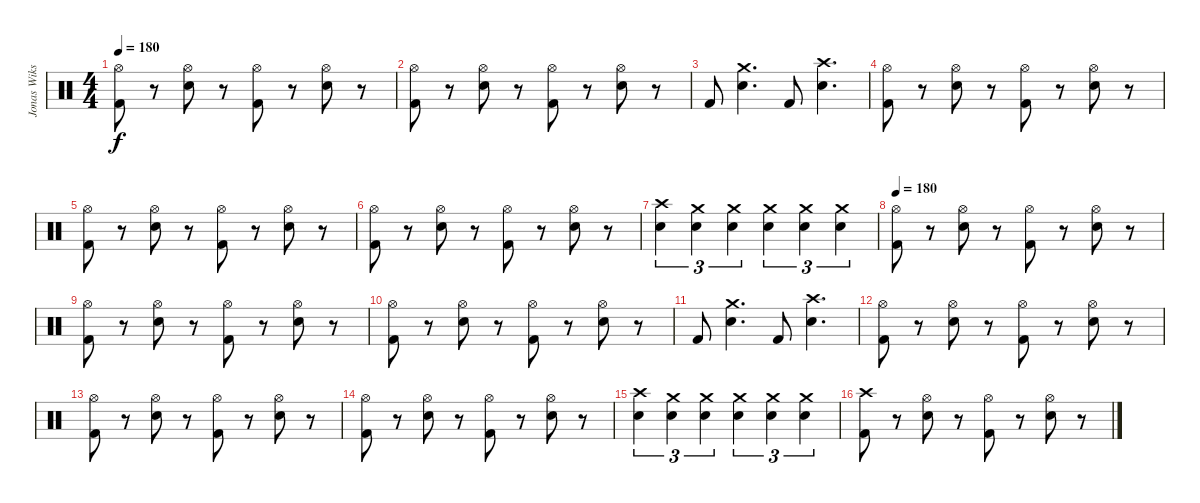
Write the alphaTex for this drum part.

\track ("Jonas Wikstrand" "Jonas Wiks") {instrument percussion}
\staff {score}
\articulation defaults
\ts (4 4)
\tempo 180
\clef neutral
\ks c
("Hi-Hat (open)" "Kick (hit) 2").8{dy f} r.8 ("Hi-Hat (open)" "Snare (hit) 2").8 r.8 ("Hi-Hat (open)" "Kick (hit) 2").8 r.8 ("Hi-Hat (open)" "Snare (hit) 2").8 r.8 |
("Hi-Hat (open)" "Kick (hit) 2").8 r.8 ("Hi-Hat (open)" "Snare (hit) 2").8 r.8 ("Hi-Hat (open)" "Kick (hit) 2").8 r.8 ("Hi-Hat (open)" "Snare (hit) 2").8 r.8 |
"Kick (hit) 2".8 ("Crash medium (hit)" "Snare (hit) 2").4{d} "Kick (hit) 2".8 ("Crash high (hit)" "Snare (hit) 2").4{d} |
("Hi-Hat (open)" "Kick (hit) 2").8 r.8 ("Hi-Hat (open)" "Snare (hit) 2").8 r.8 ("Hi-Hat (open)" "Kick (hit) 2").8 r.8 ("Hi-Hat (open)" "Snare (hit) 2").8 r.8 |
("Hi-Hat (open)" "Kick (hit) 2").8 r.8 ("Hi-Hat (open)" "Snare (hit) 2").8 r.8 ("Hi-Hat (open)" "Kick (hit) 2").8 r.8 ("Hi-Hat (open)" "Snare (hit) 2").8 r.8 |
("Hi-Hat (open)" "Kick (hit) 2").8 r.8 ("Hi-Hat (open)" "Snare (hit) 2").8 r.8 ("Hi-Hat (open)" "Kick (hit) 2").8 r.8 ("Hi-Hat (open)" "Snare (hit) 2").8 r.8 |
("Crash high (hit)" "Snare (hit) 2").4{tu (3 2)} ("Crash medium (hit)" "Snare (hit) 2").4{tu (3 2)} ("Crash medium (hit)" "Snare (hit) 2").4{tu (3 2)} ("Crash medium (hit)" "Snare (hit) 2").4{tu (3 2)} ("Crash medium (hit)" "Snare (hit) 2").4{tu (3 2)} ("Crash medium (hit)" "Snare (hit) 2").4{tu (3 2)} |
\tempo 180
("Hi-Hat (open)" "Kick (hit) 2").8 r.8 ("Hi-Hat (open)" "Snare (hit) 2").8 r.8 ("Hi-Hat (open)" "Kick (hit) 2").8 r.8 ("Hi-Hat (open)" "Snare (hit) 2").8 r.8 |
("Hi-Hat (open)" "Kick (hit) 2").8 r.8 ("Hi-Hat (open)" "Snare (hit) 2").8 r.8 ("Hi-Hat (open)" "Kick (hit) 2").8 r.8 ("Hi-Hat (open)" "Snare (hit) 2").8 r.8 |
("Hi-Hat (open)" "Kick (hit) 2").8 r.8 ("Hi-Hat (open)" "Snare (hit) 2").8 r.8 ("Hi-Hat (open)" "Kick (hit) 2").8 r.8 ("Hi-Hat (open)" "Snare (hit) 2").8 r.8 |
"Kick (hit) 2".8 ("Crash medium (hit)" "Snare (hit) 2").4{d} "Kick (hit) 2".8 ("Crash high (hit)" "Snare (hit) 2").4{d} |
("Hi-Hat (open)" "Kick (hit) 2").8 r.8 ("Hi-Hat (open)" "Snare (hit) 2").8 r.8 ("Hi-Hat (open)" "Kick (hit) 2").8 r.8 ("Hi-Hat (open)" "Snare (hit) 2").8 r.8 |
("Hi-Hat (open)" "Kick (hit) 2").8 r.8 ("Hi-Hat (open)" "Snare (hit) 2").8 r.8 ("Hi-Hat (open)" "Kick (hit) 2").8 r.8 ("Hi-Hat (open)" "Snare (hit) 2").8 r.8 |
("Hi-Hat (open)" "Kick (hit) 2").8 r.8 ("Hi-Hat (open)" "Snare (hit) 2").8 r.8 ("Hi-Hat (open)" "Kick (hit) 2").8 r.8 ("Hi-Hat (open)" "Snare (hit) 2").8 r.8 |
("Crash high (hit)" "Snare (hit) 2").4{tu (3 2)} ("Crash medium (hit)" "Snare (hit) 2").4{tu (3 2)} ("Crash medium (hit)" "Snare (hit) 2").4{tu (3 2)} ("Crash medium (hit)" "Snare (hit) 2").4{tu (3 2)} ("Crash medium (hit)" "Snare (hit) 2").4{tu (3 2)} ("Crash medium (hit)" "Snare (hit) 2").4{tu (3 2)} |
("Crash high (hit)" "Kick (hit) 2").8 r.8 ("Hi-Hat (open)" "Snare (hit) 2").8 r.8 ("Hi-Hat (open)" "Kick (hit) 2").8 r.8 ("Hi-Hat (open)" "Snare (hit) 2").8 r.8
